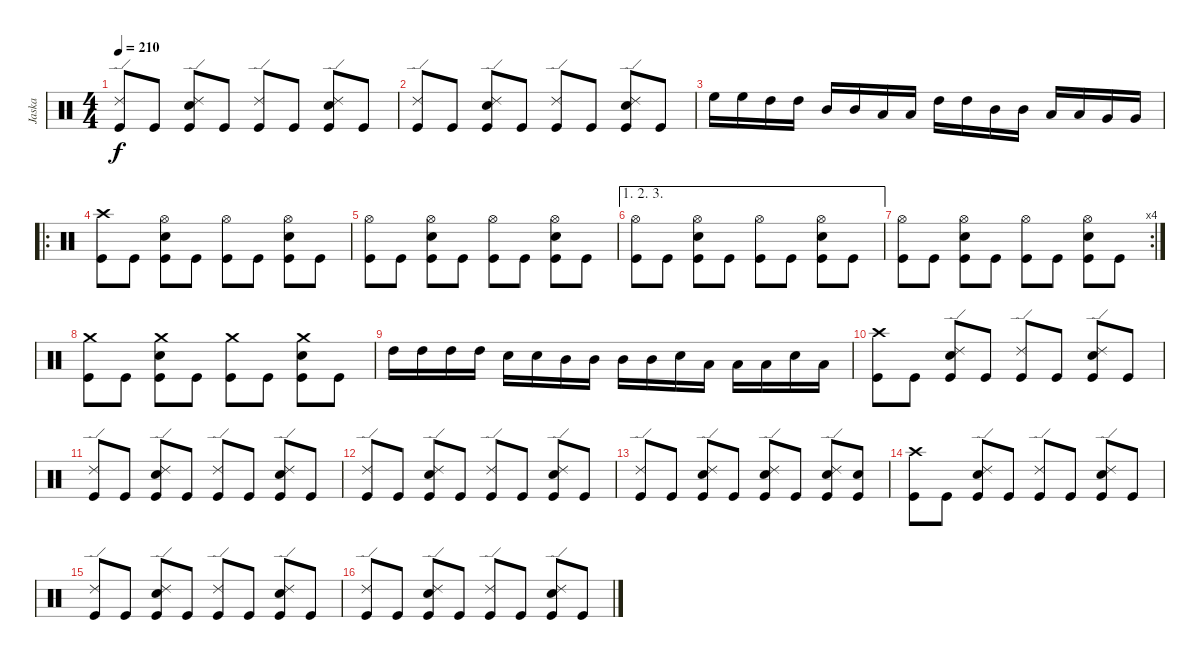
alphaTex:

\track ("Jaska" "Jaska") {instrument percussion}
\staff {score}
\articulation defaults
\ts (4 4)
\tempo 210
\clef neutral
\ks c
("Ride (edge) 2" "Kick (hit)").8{dy f} "Kick (hit)".8 ("Ride (edge) 2" "Electric Snare (hit)" "Kick (hit)").8 "Kick (hit)".8 ("Ride (edge) 2" "Kick (hit)").8 "Kick (hit)".8 ("Ride (edge) 2" "Electric Snare (hit)" "Kick (hit)").8 "Kick (hit)".8 |
("Ride (edge) 2" "Kick (hit)").8 "Kick (hit)".8 ("Ride (edge) 2" "Electric Snare (hit)" "Kick (hit)").8 "Kick (hit)".8 ("Ride (edge) 2" "Kick (hit)").8 "Kick (hit)".8 ("Ride (edge) 2" "Electric Snare (hit)" "Kick (hit)").8 "Kick (hit)".8 |
"High Floor Tom (hit)".16 "High Floor Tom (hit)".16 "High Tom (hit)".16 "High Tom (hit)".16 "Mid Tom (hit)".16 "Mid Tom (hit)".16 "Low Tom (hit)".16 "Low Tom (hit)".16 "High Tom (hit)".16 "High Tom (hit)".16 "Mid Tom (hit)".16 "Mid Tom (hit)".16 "Low Tom (hit)".16 "Low Tom (hit)".16 "Very Low Tom (hit)".16 "Very Low Tom (hit)".16 |
\ro
("Crash high (hit)" "Kick (hit)").8 "Kick (hit)".8 ("Hi-Hat (open)" "Electric Snare (hit)" "Kick (hit)").8 "Kick (hit)".8 ("Hi-Hat (open)" "Kick (hit)").8 "Kick (hit)".8 ("Hi-Hat (open)" "Electric Snare (hit)" "Kick (hit)").8 "Kick (hit)".8 |
("Hi-Hat (open)" "Kick (hit)").8 "Kick (hit)".8 ("Hi-Hat (open)" "Electric Snare (hit)" "Kick (hit)").8 "Kick (hit)".8 ("Hi-Hat (open)" "Kick (hit)").8 "Kick (hit)".8 ("Hi-Hat (open)" "Electric Snare (hit)" "Kick (hit)").8 "Kick (hit)".8 |
\ae (1 2 3)
("Hi-Hat (open)" "Kick (hit)").8 "Kick (hit)".8 ("Hi-Hat (open)" "Electric Snare (hit)" "Kick (hit)").8 "Kick (hit)".8 ("Hi-Hat (open)" "Kick (hit)").8 "Kick (hit)".8 ("Hi-Hat (open)" "Electric Snare (hit)" "Kick (hit)").8 "Kick (hit)".8 |
\rc 4
("Hi-Hat (open)" "Kick (hit)").8 "Kick (hit)".8 ("Hi-Hat (open)" "Electric Snare (hit)" "Kick (hit)").8 "Kick (hit)".8 ("Hi-Hat (open)" "Kick (hit)").8 "Kick (hit)".8 ("Hi-Hat (open)" "Electric Snare (hit)" "Kick (hit)").8 "Kick (hit)".8 |
("Crash medium (hit)" "Kick (hit)").8 "Kick (hit)".8 ("Crash medium (hit)" "Electric Snare (hit)" "Kick (hit)").8 "Kick (hit)".8 ("Crash medium (hit)" "Kick (hit)").8 "Kick (hit)".8 ("Crash medium (hit)" "Electric Snare (hit)" "Kick (hit)").8 "Kick (hit)".8 |
"High Tom (hit)".16 "High Tom (hit)".16 "High Tom (hit)".16 "High Tom (hit)".16 "Electric Snare (hit)".16 "Electric Snare (hit)".16 "Mid Tom (hit)".16 "Mid Tom (hit)".16 "Mid Tom (hit)".16 "Mid Tom (hit)".16 "Electric Snare (hit)".16 "Low Tom (hit)".16 "Low Tom (hit)".16 "Low Tom (hit)".16 "Electric Snare (hit)".16 "Low Tom (hit)".16 |
("Crash high (hit)" "Kick (hit)").8 "Kick (hit)".8 ("Ride (edge) 2" "Electric Snare (hit)" "Kick (hit)").8 "Kick (hit)".8 ("Ride (edge) 2" "Kick (hit)").8 "Kick (hit)".8 ("Ride (edge) 2" "Electric Snare (hit)" "Kick (hit)").8 "Kick (hit)".8 |
("Ride (edge) 2" "Kick (hit)").8 "Kick (hit)".8 ("Ride (edge) 2" "Electric Snare (hit)" "Kick (hit)").8 "Kick (hit)".8 ("Ride (edge) 2" "Kick (hit)").8 "Kick (hit)".8 ("Ride (edge) 2" "Electric Snare (hit)" "Kick (hit)").8 "Kick (hit)".8 |
("Ride (edge) 2" "Kick (hit)").8 "Kick (hit)".8 ("Ride (edge) 2" "Electric Snare (hit)" "Kick (hit)").8 "Kick (hit)".8 ("Ride (edge) 2" "Kick (hit)").8 "Kick (hit)".8 ("Ride (edge) 2" "Electric Snare (hit)" "Kick (hit)").8 "Kick (hit)".8 |
("Ride (edge) 2" "Kick (hit)").8 "Kick (hit)".8 ("Ride (edge) 2" "Electric Snare (hit)" "Kick (hit)").8 "Kick (hit)".8 ("Ride (edge) 2" "Electric Snare (hit)" "Kick (hit)").8 "Kick (hit)".8 ("Ride (edge) 2" "Electric Snare (hit)" "Kick (hit)").8 ("Electric Snare (hit)" "Kick (hit)").8 |
("Crash high (hit)" "Kick (hit)").8 "Kick (hit)".8 ("Ride (edge) 2" "Electric Snare (hit)" "Kick (hit)").8 "Kick (hit)".8 ("Ride (edge) 2" "Kick (hit)").8 "Kick (hit)".8 ("Ride (edge) 2" "Electric Snare (hit)" "Kick (hit)").8 "Kick (hit)".8 |
("Ride (edge) 2" "Kick (hit)").8 "Kick (hit)".8 ("Ride (edge) 2" "Electric Snare (hit)" "Kick (hit)").8 "Kick (hit)".8 ("Ride (edge) 2" "Kick (hit)").8 "Kick (hit)".8 ("Ride (edge) 2" "Electric Snare (hit)" "Kick (hit)").8 "Kick (hit)".8 |
("Ride (edge) 2" "Kick (hit)").8 "Kick (hit)".8 ("Ride (edge) 2" "Electric Snare (hit)" "Kick (hit)").8 "Kick (hit)".8 ("Ride (edge) 2" "Kick (hit)").8 "Kick (hit)".8 ("Ride (edge) 2" "Electric Snare (hit)" "Kick (hit)").8 "Kick (hit)".8
